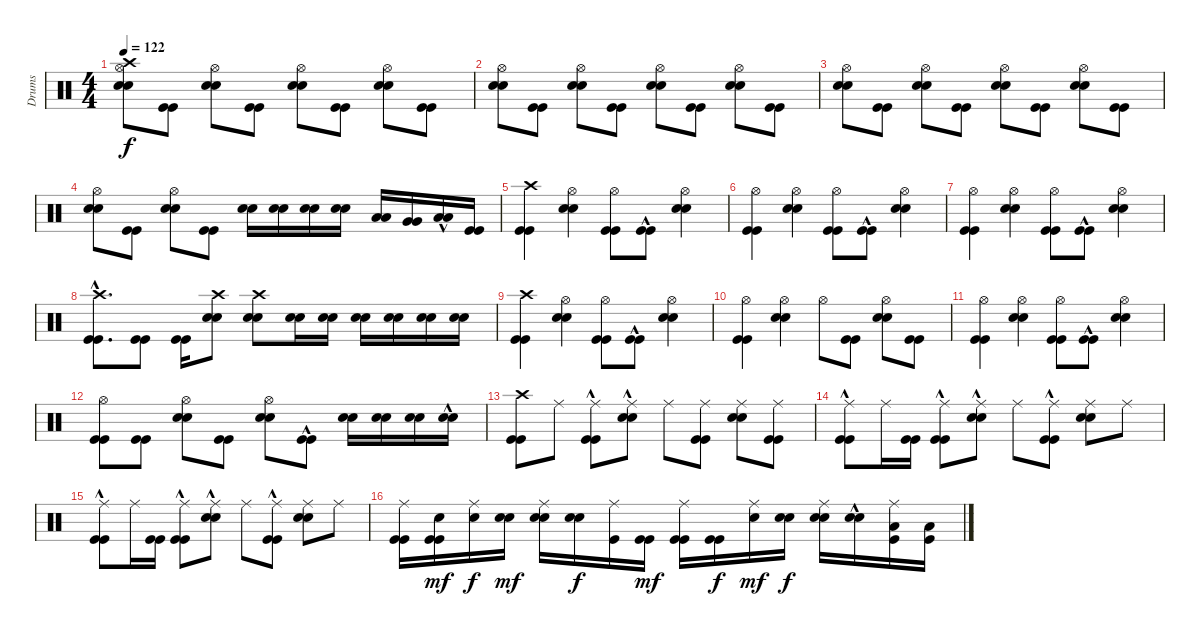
\track ("Drums" "Drums") {instrument percussion}
\staff {score}
\articulation defaults
\ts (4 4)
\tempo 122
\clef neutral
\ks c
("Snare (hit) 2" "Snare (hit) 2" "Hi-Hat (open)" "Crash high (hit)").8{dy f} ("Kick (hit)" "Kick (hit)").8 ("Snare (hit) 2" "Snare (hit) 2" "Hi-Hat (open)").8 ("Kick (hit)" "Kick (hit)").8 ("Snare (hit) 2" "Snare (hit) 2" "Hi-Hat (open)").8 ("Kick (hit)" "Kick (hit)").8 ("Snare (hit) 2" "Snare (hit) 2" "Hi-Hat (open)").8 ("Kick (hit)" "Kick (hit)").8 |
("Snare (hit) 2" "Snare (hit) 2" "Hi-Hat (open)").8 ("Kick (hit)" "Kick (hit)").8 ("Snare (hit) 2" "Snare (hit) 2" "Hi-Hat (open)").8 ("Kick (hit)" "Kick (hit)").8 ("Snare (hit) 2" "Snare (hit) 2" "Hi-Hat (open)").8 ("Kick (hit)" "Kick (hit)").8 ("Snare (hit) 2" "Snare (hit) 2" "Hi-Hat (open)").8 ("Kick (hit)" "Kick (hit)").8 |
("Snare (hit) 2" "Snare (hit) 2" "Hi-Hat (open)").8 ("Kick (hit)" "Kick (hit)").8 ("Snare (hit) 2" "Snare (hit) 2" "Hi-Hat (open)").8 ("Kick (hit)" "Kick (hit)").8 ("Snare (hit) 2" "Snare (hit) 2" "Hi-Hat (open)").8 ("Kick (hit)" "Kick (hit)").8 ("Snare (hit) 2" "Snare (hit) 2" "Hi-Hat (open)").8 ("Kick (hit)" "Kick (hit)").8 |
("Snare (hit) 2" "Snare (hit) 2" "Hi-Hat (open)").8 ("Kick (hit)" "Kick (hit)").8 ("Snare (hit) 2" "Snare (hit) 2" "Hi-Hat (open)").8 ("Kick (hit)" "Kick (hit)").8 ("Snare (hit) 2" "Snare (hit) 2").16 ("Snare (hit) 2" "Snare (hit) 2").16 ("Snare (hit) 2" "Snare (hit) 2").16 ("Snare (hit) 2" "Snare (hit) 2").16 ("Low Tom (hit)" "Low Tom (hit)").16 ("Very Low Tom (hit)" "Very Low Tom (hit)").16 ("Low Floor Tom (hit)"{hac} "Low Floor Tom (hit)"{hac}).16 ("Kick (hit)" "Kick (hit)").16 |
("Kick (hit)" "Kick (hit)" "Crash high (hit)").4 ("Snare (hit) 2" "Snare (hit) 2" "Hi-Hat (open)").4 ("Kick (hit)" "Kick (hit)" "Hi-Hat (open)").8 ("Kick (hit)"{hac} "Kick (hit)"{hac}).8 ("Snare (hit) 2" "Snare (hit) 2" "Hi-Hat (open)").4 |
("Kick (hit)" "Kick (hit)" "Hi-Hat (open)").4 ("Snare (hit) 2" "Snare (hit) 2" "Hi-Hat (open)").4 ("Kick (hit)" "Kick (hit)" "Hi-Hat (open)").8 ("Kick (hit)"{hac} "Kick (hit)"{hac}).8 ("Snare (hit) 2" "Snare (hit) 2" "Hi-Hat (open)").4 |
("Kick (hit)" "Kick (hit)" "Hi-Hat (open)").4 ("Snare (hit) 2" "Snare (hit) 2" "Hi-Hat (open)").4 ("Kick (hit)" "Kick (hit)" "Hi-Hat (open)").8 ("Kick (hit)"{hac} "Kick (hit)"{hac}).8 ("Snare (hit) 2" "Snare (hit) 2" "Hi-Hat (open)").4 |
("Kick (hit)"{hac} "Kick (hit)"{hac} "Crash high (hit)"{hac}).8{d} ("Kick (hit)" "Kick (hit)").8 ("Kick (hit)" "Kick (hit)").16 ("Snare (hit) 2" "Snare (hit) 2" "Crash high (hit)").8 ("Snare (hit) 2" "Snare (hit) 2" "Crash high (hit)").8 ("Snare (hit) 2" "Snare (hit) 2").16 ("Snare (hit) 2" "Snare (hit) 2").16 ("Snare (hit) 2" "Snare (hit) 2").16 ("Snare (hit) 2" "Snare (hit) 2").16 ("Snare (hit) 2" "Snare (hit) 2").16 ("Snare (hit) 2" "Snare (hit) 2").16 |
("Kick (hit)" "Kick (hit)" "Crash high (hit)").4 ("Snare (hit) 2" "Snare (hit) 2" "Hi-Hat (open)").4 ("Kick (hit)" "Kick (hit)" "Hi-Hat (open)").8 ("Kick (hit)"{hac} "Kick (hit)"{hac}).8 ("Snare (hit) 2" "Snare (hit) 2" "Hi-Hat (open)").4 |
("Kick (hit)" "Kick (hit)" "Hi-Hat (open)").4 ("Snare (hit) 2" "Snare (hit) 2" "Hi-Hat (open)").4 "Hi-Hat (open)".8 ("Kick (hit)" "Kick (hit)").8 ("Snare (hit) 2" "Snare (hit) 2" "Hi-Hat (open)").8 ("Kick (hit)" "Kick (hit)").8 |
("Kick (hit)" "Kick (hit)" "Hi-Hat (open)").4 ("Snare (hit) 2" "Snare (hit) 2" "Hi-Hat (open)").4 ("Kick (hit)" "Kick (hit)" "Hi-Hat (open)").8 ("Kick (hit)"{hac} "Kick (hit)"{hac}).8 ("Snare (hit) 2" "Snare (hit) 2" "Hi-Hat (open)").4 |
("Kick (hit)" "Kick (hit)" "Hi-Hat (open)").8 ("Kick (hit)" "Kick (hit)").8 ("Snare (hit) 2" "Snare (hit) 2" "Hi-Hat (open)").8 ("Kick (hit)" "Kick (hit)").8 ("Snare (hit) 2" "Snare (hit) 2" "Hi-Hat (open)").8 ("Kick (hit)"{hac} "Kick (hit)"{hac}).8 ("Snare (hit) 2" "Snare (hit) 2").16 ("Snare (hit) 2" "Snare (hit) 2").16 ("Snare (hit) 2" "Snare (hit) 2").16 ("Snare (hit) 2"{hac} "Snare (hit) 2"{hac}).16 |
("Kick (hit)" "Kick (hit)" "Crash high (hit)").8 "Ride (middle)".8 ("Kick (hit)"{hac} "Kick (hit)"{hac} "Ride (middle)").8 ("Snare (hit) 2"{hac} "Snare (hit) 2"{hac} "Ride (middle)").8 "Ride (middle)".8 ("Kick (hit)" "Kick (hit)" "Ride (middle)").8 ("Snare (hit) 2" "Snare (hit) 2" "Ride (middle)").8 ("Kick (hit)" "Kick (hit)" "Ride (middle)").8 |
("Kick (hit)"{hac} "Kick (hit)"{hac} "Ride (middle)").8 "Ride (middle)".16 ("Kick (hit)" "Kick (hit)").16 ("Kick (hit)"{hac} "Kick (hit)"{hac} "Ride (middle)").8 ("Snare (hit) 2"{hac} "Snare (hit) 2"{hac} "Ride (middle)").8 "Ride (middle)".8 ("Kick (hit)"{hac} "Kick (hit)"{hac} "Ride (middle)").8 ("Snare (hit) 2" "Snare (hit) 2" "Ride (middle)").8 "Ride (middle)".8 |
("Kick (hit)"{hac} "Kick (hit)"{hac} "Ride (middle)").8 "Ride (middle)".16 ("Kick (hit)" "Kick (hit)").16 ("Kick (hit)"{hac} "Kick (hit)"{hac} "Ride (middle)").8 ("Snare (hit) 2"{hac} "Snare (hit) 2"{hac} "Ride (middle)").8 "Ride (middle)".8 ("Kick (hit)"{hac} "Kick (hit)"{hac} "Ride (middle)").8 ("Snare (hit) 2" "Snare (hit) 2" "Ride (middle)").8 "Ride (middle)".8 |
("Kick (hit)" "Kick (hit)" "Ride (middle)").16 ("Kick (hit)" "Kick (hit)" "Snare (hit) 2").16{dy mf} ("Snare (hit) 2" "Ride (middle)").16{dy f} ("Snare (hit) 2" "Snare (hit) 2").16{dy mf} ("Snare (hit) 2" "Snare (hit) 2" "Ride (middle)").16 ("Snare (hit) 2" "Snare (hit) 2").16{dy f} ("Kick (hit)" "Ride (middle)").16 ("Kick (hit)" "Kick (hit)").16{dy mf} ("Kick (hit)" "Kick (hit)" "Ride (middle)").16 ("Kick (hit)" "Kick (hit)").16{dy f} ("Snare (hit) 2" "Ride (middle)").16{dy mf} ("Snare (hit) 2" "Snare (hit) 2").16{dy f} ("Snare (hit) 2" "Snare (hit) 2" "Ride (middle)").16 ("Snare (hit) 2"{hac} "Snare (hit) 2"{hac}).16 ("Kick (hit)" "Low Floor Tom (hit)" "Ride (middle)").16 ("Kick (hit)" "Low Floor Tom (hit)").16
